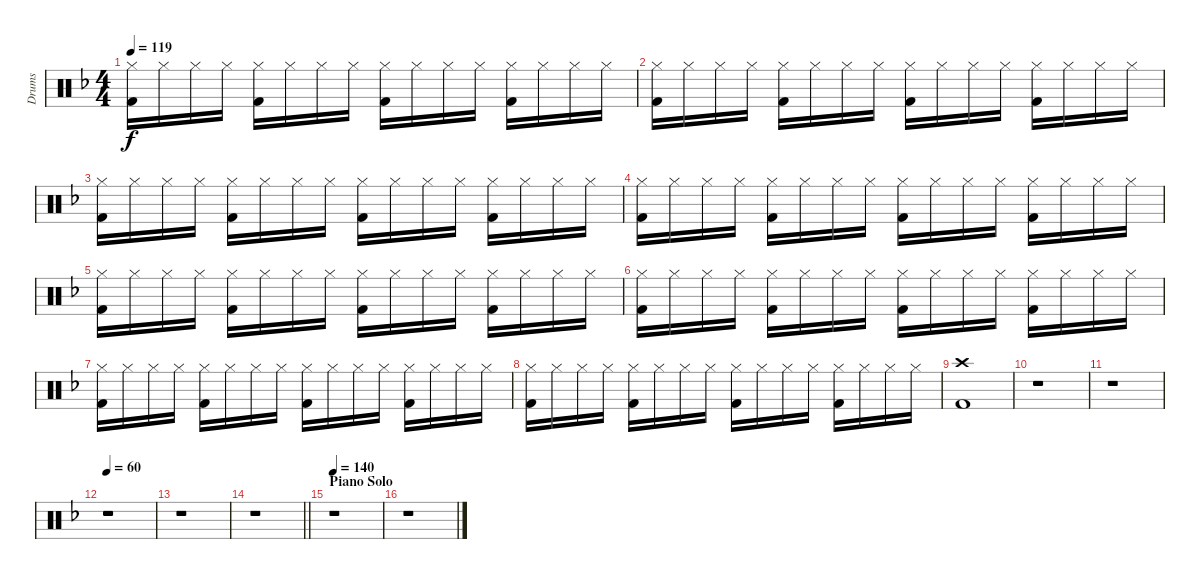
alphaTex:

\track ("Drums" "Drums") {instrument percussion}
\staff {score}
\articulation defaults
\ts (4 4)
\tempo 119
\clef neutral
\ks dminor
("Hi-Hat (closed)" "Kick (hit) 2").16{dy f} "Hi-Hat (closed)".16 "Hi-Hat (closed)".16 "Hi-Hat (closed)".16 ("Hi-Hat (closed)" "Kick (hit) 2").16 "Hi-Hat (closed)".16 "Hi-Hat (closed)".16 "Hi-Hat (closed)".16 ("Hi-Hat (closed)" "Kick (hit) 2").16 "Hi-Hat (closed)".16 "Hi-Hat (closed)".16 "Hi-Hat (closed)".16 ("Hi-Hat (closed)" "Kick (hit) 2").16 "Hi-Hat (closed)".16 "Hi-Hat (closed)".16 "Hi-Hat (closed)".16 |
("Hi-Hat (closed)" "Kick (hit) 2").16 "Hi-Hat (closed)".16 "Hi-Hat (closed)".16 "Hi-Hat (closed)".16 ("Hi-Hat (closed)" "Kick (hit) 2").16 "Hi-Hat (closed)".16 "Hi-Hat (closed)".16 "Hi-Hat (closed)".16 ("Hi-Hat (closed)" "Kick (hit) 2").16 "Hi-Hat (closed)".16 "Hi-Hat (closed)".16 "Hi-Hat (closed)".16 ("Hi-Hat (closed)" "Kick (hit) 2").16 "Hi-Hat (closed)".16 "Hi-Hat (closed)".16 "Hi-Hat (closed)".16 |
("Hi-Hat (closed)" "Kick (hit) 2").16 "Hi-Hat (closed)".16 "Hi-Hat (closed)".16 "Hi-Hat (closed)".16 ("Hi-Hat (closed)" "Kick (hit) 2").16 "Hi-Hat (closed)".16 "Hi-Hat (closed)".16 "Hi-Hat (closed)".16 ("Hi-Hat (closed)" "Kick (hit) 2").16 "Hi-Hat (closed)".16 "Hi-Hat (closed)".16 "Hi-Hat (closed)".16 ("Hi-Hat (closed)" "Kick (hit) 2").16 "Hi-Hat (closed)".16 "Hi-Hat (closed)".16 "Hi-Hat (closed)".16 |
("Hi-Hat (closed)" "Kick (hit) 2").16 "Hi-Hat (closed)".16 "Hi-Hat (closed)".16 "Hi-Hat (closed)".16 ("Hi-Hat (closed)" "Kick (hit) 2").16 "Hi-Hat (closed)".16 "Hi-Hat (closed)".16 "Hi-Hat (closed)".16 ("Hi-Hat (closed)" "Kick (hit) 2").16 "Hi-Hat (closed)".16 "Hi-Hat (closed)".16 "Hi-Hat (closed)".16 ("Hi-Hat (closed)" "Kick (hit) 2").16 "Hi-Hat (closed)".16 "Hi-Hat (closed)".16 "Hi-Hat (closed)".16 |
("Hi-Hat (closed)" "Kick (hit) 2").16 "Hi-Hat (closed)".16 "Hi-Hat (closed)".16 "Hi-Hat (closed)".16 ("Hi-Hat (closed)" "Kick (hit) 2").16 "Hi-Hat (closed)".16 "Hi-Hat (closed)".16 "Hi-Hat (closed)".16 ("Hi-Hat (closed)" "Kick (hit) 2").16 "Hi-Hat (closed)".16 "Hi-Hat (closed)".16 "Hi-Hat (closed)".16 ("Hi-Hat (closed)" "Kick (hit) 2").16 "Hi-Hat (closed)".16 "Hi-Hat (closed)".16 "Hi-Hat (closed)".16 |
("Hi-Hat (closed)" "Kick (hit) 2").16 "Hi-Hat (closed)".16 "Hi-Hat (closed)".16 "Hi-Hat (closed)".16 ("Hi-Hat (closed)" "Kick (hit) 2").16 "Hi-Hat (closed)".16 "Hi-Hat (closed)".16 "Hi-Hat (closed)".16 ("Hi-Hat (closed)" "Kick (hit) 2").16 "Hi-Hat (closed)".16 "Hi-Hat (closed)".16 "Hi-Hat (closed)".16 ("Hi-Hat (closed)" "Kick (hit) 2").16 "Hi-Hat (closed)".16 "Hi-Hat (closed)".16 "Hi-Hat (closed)".16 |
("Hi-Hat (closed)" "Kick (hit) 2").16 "Hi-Hat (closed)".16 "Hi-Hat (closed)".16 "Hi-Hat (closed)".16 ("Hi-Hat (closed)" "Kick (hit) 2").16 "Hi-Hat (closed)".16 "Hi-Hat (closed)".16 "Hi-Hat (closed)".16 ("Hi-Hat (closed)" "Kick (hit) 2").16 "Hi-Hat (closed)".16 "Hi-Hat (closed)".16 "Hi-Hat (closed)".16 ("Hi-Hat (closed)" "Kick (hit) 2").16 "Hi-Hat (closed)".16 "Hi-Hat (closed)".16 "Hi-Hat (closed)".16 |
("Hi-Hat (closed)" "Kick (hit) 2").16 "Hi-Hat (closed)".16 "Hi-Hat (closed)".16 "Hi-Hat (closed)".16 ("Hi-Hat (closed)" "Kick (hit) 2").16 "Hi-Hat (closed)".16 "Hi-Hat (closed)".16 "Hi-Hat (closed)".16 ("Hi-Hat (closed)" "Kick (hit) 2").16 "Hi-Hat (closed)".16 "Hi-Hat (closed)".16 "Hi-Hat (closed)".16 ("Hi-Hat (closed)" "Kick (hit) 2").16 "Hi-Hat (closed)".16 "Hi-Hat (closed)".16 "Hi-Hat (closed)".16 |
("Crash high (hit)" "Kick (hit) 2").1 |
r.1 |
r.1 |
\tempo 60
r.1 |
r.1 |
\barLineRight lightlight
r.1 |
\section ("" "Piano Solo")
\tempo 140
r.1 |
r.1
